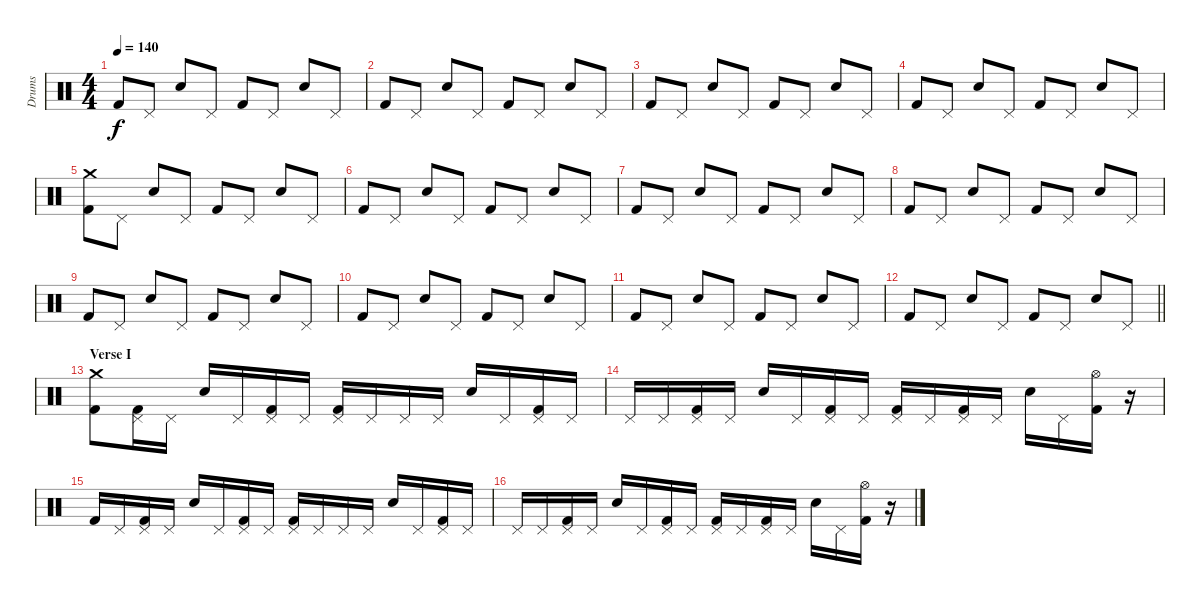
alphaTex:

\track ("Drums" "Drums") {instrument percussion}
\staff {score}
\articulation defaults
\ts (4 4)
\tempo 140
\clef neutral
\ks c "Kick (hit) 2".8{dy f} "Pedal Hi-Hat (hit)".8 "Electric Snare (hit)".8 "Pedal Hi-Hat (hit)".8 "Kick (hit) 2".8 "Pedal Hi-Hat (hit)".8 "Electric Snare (hit)".8 "Pedal Hi-Hat (hit)".8
|
"Kick (hit) 2".8 "Pedal Hi-Hat (hit)".8 "Electric Snare (hit)".8 "Pedal Hi-Hat (hit)".8 "Kick (hit) 2".8 "Pedal Hi-Hat (hit)".8 "Electric Snare (hit)".8 "Pedal Hi-Hat (hit)".8 |
"Kick (hit) 2".8 "Pedal Hi-Hat (hit)".8 "Electric Snare (hit)".8 "Pedal Hi-Hat (hit)".8 "Kick (hit) 2".8 "Pedal Hi-Hat (hit)".8 "Electric Snare (hit)".8 "Pedal Hi-Hat (hit)".8 |
"Kick (hit) 2".8 "Pedal Hi-Hat (hit)".8 "Electric Snare (hit)".8 "Pedal Hi-Hat (hit)".8 "Kick (hit) 2".8 "Pedal Hi-Hat (hit)".8 "Electric Snare (hit)".8 "Pedal Hi-Hat (hit)".8 |
("Crash medium (hit)" "Kick (hit) 2").8 "Pedal Hi-Hat (hit)".8 "Electric Snare (hit)".8 "Pedal Hi-Hat (hit)".8 "Kick (hit) 2".8 "Pedal Hi-Hat (hit)".8 "Electric Snare (hit)".8 "Pedal Hi-Hat (hit)".8 |
"Kick (hit) 2".8 "Pedal Hi-Hat (hit)".8 "Electric Snare (hit)".8 "Pedal Hi-Hat (hit)".8 "Kick (hit) 2".8 "Pedal Hi-Hat (hit)".8 "Electric Snare (hit)".8 "Pedal Hi-Hat (hit)".8 |
"Kick (hit) 2".8 "Pedal Hi-Hat (hit)".8 "Electric Snare (hit)".8 "Pedal Hi-Hat (hit)".8 "Kick (hit) 2".8 "Pedal Hi-Hat (hit)".8 "Electric Snare (hit)".8 "Pedal Hi-Hat (hit)".8 |
"Kick (hit) 2".8 "Pedal Hi-Hat (hit)".8 "Electric Snare (hit)".8 "Pedal Hi-Hat (hit)".8 "Kick (hit) 2".8 "Pedal Hi-Hat (hit)".8 "Electric Snare (hit)".8 "Pedal Hi-Hat (hit)".8 |
"Kick (hit) 2".8 "Pedal Hi-Hat (hit)".8 "Electric Snare (hit)".8 "Pedal Hi-Hat (hit)".8 "Kick (hit) 2".8 "Pedal Hi-Hat (hit)".8 "Electric Snare (hit)".8 "Pedal Hi-Hat (hit)".8 |
"Kick (hit) 2".8 "Pedal Hi-Hat (hit)".8 "Electric Snare (hit)".8 "Pedal Hi-Hat (hit)".8 "Kick (hit) 2".8 "Pedal Hi-Hat (hit)".8 "Electric Snare (hit)".8 "Pedal Hi-Hat (hit)".8 |
"Kick (hit) 2".8 "Pedal Hi-Hat (hit)".8 "Electric Snare (hit)".8 "Pedal Hi-Hat (hit)".8 "Kick (hit) 2".8 "Pedal Hi-Hat (hit)".8 "Electric Snare (hit)".8 "Pedal Hi-Hat (hit)".8 |
\barLineRight lightlight "Kick (hit) 2".8 "Pedal Hi-Hat (hit)".8 "Electric Snare (hit)".8 "Pedal Hi-Hat (hit)".8 "Kick (hit) 2".8 "Pedal Hi-Hat (hit)".8 "Electric Snare (hit)".8 "Pedal Hi-Hat (hit)".8
|
\section ("" "Verse I")
("Crash medium (hit)" "Kick (hit) 2").8 ("Pedal Hi-Hat (hit)" "Kick (hit) 2").16 "Pedal Hi-Hat (hit)".16 "Electric Snare (hit)".16 "Pedal Hi-Hat (hit)".16 ("Pedal Hi-Hat (hit)" "Kick (hit) 2").16 "Pedal Hi-Hat (hit)".16 ("Pedal Hi-Hat (hit)" "Kick (hit) 2").16 "Pedal Hi-Hat (hit)".16 "Pedal Hi-Hat (hit)".16 "Pedal Hi-Hat (hit)".16 "Electric Snare (hit)".16 "Pedal Hi-Hat (hit)".16 ("Pedal Hi-Hat (hit)" "Kick (hit) 2").16 "Pedal Hi-Hat (hit)".16 |
"Pedal Hi-Hat (hit)".16 "Pedal Hi-Hat (hit)".16 ("Pedal Hi-Hat (hit)" "Kick (hit) 2").16 "Pedal Hi-Hat (hit)".16 "Electric Snare (hit)".16 "Pedal Hi-Hat (hit)".16 ("Pedal Hi-Hat (hit)" "Kick (hit) 2").16 "Pedal Hi-Hat (hit)".16 ("Pedal Hi-Hat (hit)" "Kick (hit) 2").16 "Pedal Hi-Hat (hit)".16 ("Pedal Hi-Hat (hit)" "Kick (hit) 2").16 "Pedal Hi-Hat (hit)".16 "Electric Snare (hit)".16 "Pedal Hi-Hat (hit)".16 ("Hi-Hat (open)" "Kick (hit) 2").16 r.16 |
"Kick (hit) 2".16 "Pedal Hi-Hat (hit)".16 ("Pedal Hi-Hat (hit)" "Kick (hit) 2").16 "Pedal Hi-Hat (hit)".16 "Electric Snare (hit)".16 "Pedal Hi-Hat (hit)".16 ("Pedal Hi-Hat (hit)" "Kick (hit) 2").16 "Pedal Hi-Hat (hit)".16 ("Pedal Hi-Hat (hit)" "Kick (hit) 2").16 "Pedal Hi-Hat (hit)".16 "Pedal Hi-Hat (hit)".16 "Pedal Hi-Hat (hit)".16 "Electric Snare (hit)".16 "Pedal Hi-Hat (hit)".16 ("Pedal Hi-Hat (hit)" "Kick (hit) 2").16 "Pedal Hi-Hat (hit)".16 |
"Pedal Hi-Hat (hit)".16 "Pedal Hi-Hat (hit)".16 ("Pedal Hi-Hat (hit)" "Kick (hit) 2").16 "Pedal Hi-Hat (hit)".16 "Electric Snare (hit)".16 "Pedal Hi-Hat (hit)".16 ("Pedal Hi-Hat (hit)" "Kick (hit) 2").16 "Pedal Hi-Hat (hit)".16 ("Pedal Hi-Hat (hit)" "Kick (hit) 2").16 "Pedal Hi-Hat (hit)".16 ("Pedal Hi-Hat (hit)" "Kick (hit) 2").16 "Pedal Hi-Hat (hit)".16 "Electric Snare (hit)".16 "Pedal Hi-Hat (hit)".16 ("Hi-Hat (open)" "Kick (hit) 2").16 r.16
